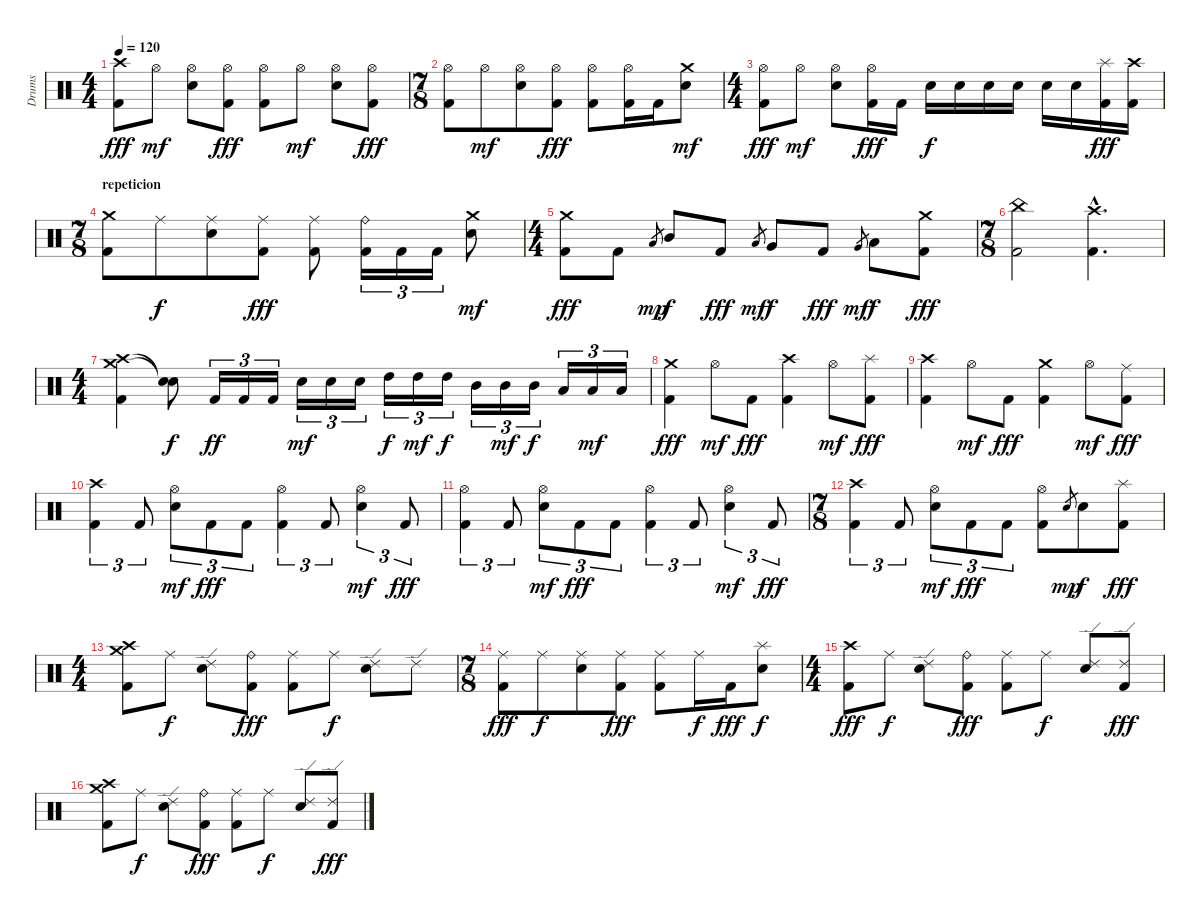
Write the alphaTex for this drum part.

\track ("Drums" "Drums") {instrument percussion}
\staff {score}
\articulation defaults
\ts (4 4)
\tempo 120
\clef neutral
\ks c
("Crash high (hit)" "Kick (hit) 2").8{dy fff} "Hi-Hat (open)".8{dy mf} ("Hi-Hat (open)" "Electric Snare (hit)").8 ("Hi-Hat (open)" "Kick (hit) 2").8{dy fff} ("Hi-Hat (open)" "Kick (hit) 2").8 "Hi-Hat (open)".8{dy mf} ("Hi-Hat (open)" "Electric Snare (hit)").8 ("Hi-Hat (open)" "Kick (hit) 2").8{dy fff} |
\ts (7 8)
("Hi-Hat (open)" "Kick (hit) 2").8 "Hi-Hat (open)".8{dy mf} ("Hi-Hat (open)" "Electric Snare (hit)").8 ("Hi-Hat (open)" "Kick (hit) 2").8{dy fff} ("Hi-Hat (open)" "Kick (hit) 2").8 ("Hi-Hat (open)" "Kick (hit) 2").16 "Kick (hit) 2".16 ("Crash medium (hit)" "Electric Snare (hit)").8{dy mf} |
\ts (4 4)
("Hi-Hat (open)" "Kick (hit) 2").8{dy fff} "Hi-Hat (open)".8{dy mf} ("Hi-Hat (open)" "Electric Snare (hit)").8 ("Hi-Hat (open)" "Kick (hit) 2").16{dy fff} "Kick (hit) 2".16 "Electric Snare (hit)".16{dy f} "Electric Snare (hit)".16 "Electric Snare (hit)".16 "Electric Snare (hit)".16 "Electric Snare (hit)".16 "Electric Snare (hit)".16 ("Splash (hit)" "Kick (hit) 2").16{dy fff} ("Crash high (hit)" "Kick (hit) 2").16 |
\ts (7 8)
\section ("" "repeticion")
("Crash medium (hit)" "Kick (hit) 2").8 "Ride (middle)".8{dy f} ("Ride (middle)" "Electric Snare (hit)").8 ("Ride (middle)" "Kick (hit) 2").8{dy fff} ("Ride (middle)" "Kick (hit) 2").8 ("Ride (bell)" "Kick (hit) 2").16{tu (3 2)} "Kick (hit) 2".16{tu (3 2)} "Kick (hit) 2".16{tu (3 2)} ("Crash medium (hit)" "Electric Snare (hit)").8{dy mf} |
\ts (4 4)
("Crash medium (hit)" "Kick (hit) 2").8{dy fff} "Kick (hit) 2".8 "Low Tom (hit)".8{gr dy mp} "Mid Tom (hit)".8{dy f} "Kick (hit) 2".8{dy fff} "Low Tom (hit)".8{gr dy mf} "Very Low Tom (hit)".8{dy f} "Kick (hit) 2".8{dy fff} "Very Low Tom (hit)".8{gr dy mf} "Low Floor Tom (hit)".8{dy f} ("Crash medium (hit)" "Kick (hit) 2").8{dy fff} |
\ts (7 8)
("China (hit)" "Kick (hit) 2").2 ("Crash high (hit)"{hac} "Kick (hit) 2"{hac}).4{d} |
\ts (4 4)
("Crash high (hit)" "Crash medium (hit)" "Kick (hit) 2").4 ("Snare (hit)"{t} "Snare (hit)"{t}).8{dy f} "Kick (hit) 2".16{tu (3 2) dy ff} "Kick (hit) 2".16{tu (3 2)} "Kick (hit) 2".16{tu (3 2)} "Electric Snare (hit)".16{tu (3 2) dy mf} "Electric Snare (hit)".16{tu (3 2)} "Electric Snare (hit)".16{tu (3 2)} "High Tom (hit)".16{tu (3 2) dy f} "High Tom (hit)".16{tu (3 2) dy mf} "High Tom (hit)".16{tu (3 2) dy f} "Mid Tom (hit)".16{tu (3 2)} "Mid Tom (hit)".16{tu (3 2) dy mf} "Mid Tom (hit)".16{tu (3 2) dy f} "Low Tom (hit)".16{tu (3 2)} "Low Tom (hit)".16{tu (3 2) dy mf} "Low Tom (hit)".16{tu (3 2)} |
("Crash medium (hit)" "Kick (hit) 2").4{dy fff} "Hi-Hat (open)".8{dy mf} "Kick (hit) 2".8{dy fff} ("Crash high (hit)" "Kick (hit) 2").4 "Hi-Hat (open)".8{dy mf} ("Splash (hit)" "Kick (hit) 2").8{dy fff} |
("Crash high (hit)" "Kick (hit) 2").4 "Hi-Hat (open)".8{dy mf} "Kick (hit) 2".8{dy fff} ("Crash medium (hit)" "Kick (hit) 2").4 "Hi-Hat (open)".8{dy mf} ("Ride (middle)" "Kick (hit) 2").8{dy fff} |
("Crash high (hit)" "Kick (hit) 2").4{tu (3 2)} "Kick (hit) 2".8{tu (3 2)} ("Hi-Hat (open)" "Electric Snare (hit)").8{tu (3 2) dy mf} "Kick (hit) 2".8{tu (3 2) dy fff} "Kick (hit) 2".8{tu (3 2)} ("Hi-Hat (open)" "Kick (hit) 2").4{tu (3 2)} "Kick (hit) 2".8{tu (3 2)} ("Hi-Hat (open)" "Electric Snare (hit)").4{tu (3 2) dy mf} "Kick (hit) 2".8{tu (3 2) dy fff} |
("Hi-Hat (open)" "Kick (hit) 2").4{tu (3 2)} "Kick (hit) 2".8{tu (3 2)} ("Hi-Hat (open)" "Electric Snare (hit)").8{tu (3 2) dy mf} "Kick (hit) 2".8{tu (3 2) dy fff} "Kick (hit) 2".8{tu (3 2)} ("Hi-Hat (open)" "Kick (hit) 2").4{tu (3 2)} "Kick (hit) 2".8{tu (3 2)} ("Hi-Hat (open)" "Electric Snare (hit)").4{tu (3 2) dy mf} "Kick (hit) 2".8{tu (3 2) dy fff} |
\ts (7 8)
("Crash high (hit)" "Kick (hit) 2").4{tu (3 2)} "Kick (hit) 2".8{tu (3 2)} ("Hi-Hat (open)" "Electric Snare (hit)").8{tu (3 2) dy mf} "Kick (hit) 2".8{tu (3 2) dy fff} "Kick (hit) 2".8{tu (3 2)} ("Hi-Hat (open)" "Kick (hit) 2").8 "Electric Snare (hit)".8{gr dy mp} "Electric Snare (hit)".8{dy f} ("Splash (hit)" "Kick (hit) 2").8{dy fff} |
\ts (4 4)
("Crash medium (hit)" "Crash high (hit)" "Kick (hit) 2").8 "Ride (middle)".8{dy f} ("Ride (edge) 2" "Electric Snare (hit)").8 ("Ride (bell)" "Kick (hit) 2").8{dy fff} ("Ride (middle)" "Kick (hit) 2").8 "Ride (middle)".8{dy f} ("Ride (edge) 2" "Electric Snare (hit)").8 "Ride (edge) 2".8 |
\ts (7 8)
("Ride (middle)" "Kick (hit) 2").8{dy fff} "Ride (middle)".8{dy f} ("Ride (middle)" "Electric Snare (hit)").8 ("Ride (middle)" "Kick (hit) 2").8{dy fff} ("Ride (middle)" "Kick (hit) 2").8 "Ride (middle)".16{dy f} "Kick (hit) 2".16{dy fff} ("Splash (hit)" "Electric Snare (hit)").8{dy f} |
\ts (4 4)
("Crash high (hit)" "Kick (hit) 2").8{dy fff} "Ride (middle)".8{dy f} ("Ride (edge) 2" "Electric Snare (hit)").8 ("Ride (bell)" "Kick (hit) 2").8{dy fff} ("Ride (middle)" "Kick (hit) 2").8 "Ride (middle)".8{dy f} ("Ride (edge) 2" "Electric Snare (hit)").8 ("Ride (edge) 2" "Kick (hit) 2").8{dy fff} |
("Crash medium (hit)" "Crash high (hit)" "Kick (hit) 2").8 "Ride (middle)".8{dy f} ("Ride (edge) 2" "Electric Snare (hit)").8 ("Ride (bell)" "Kick (hit) 2").8{dy fff} ("Ride (middle)" "Kick (hit) 2").8 "Ride (middle)".8{dy f} ("Ride (edge) 2" "Electric Snare (hit)").8 ("Ride (edge) 2" "Kick (hit) 2").8{dy fff}
